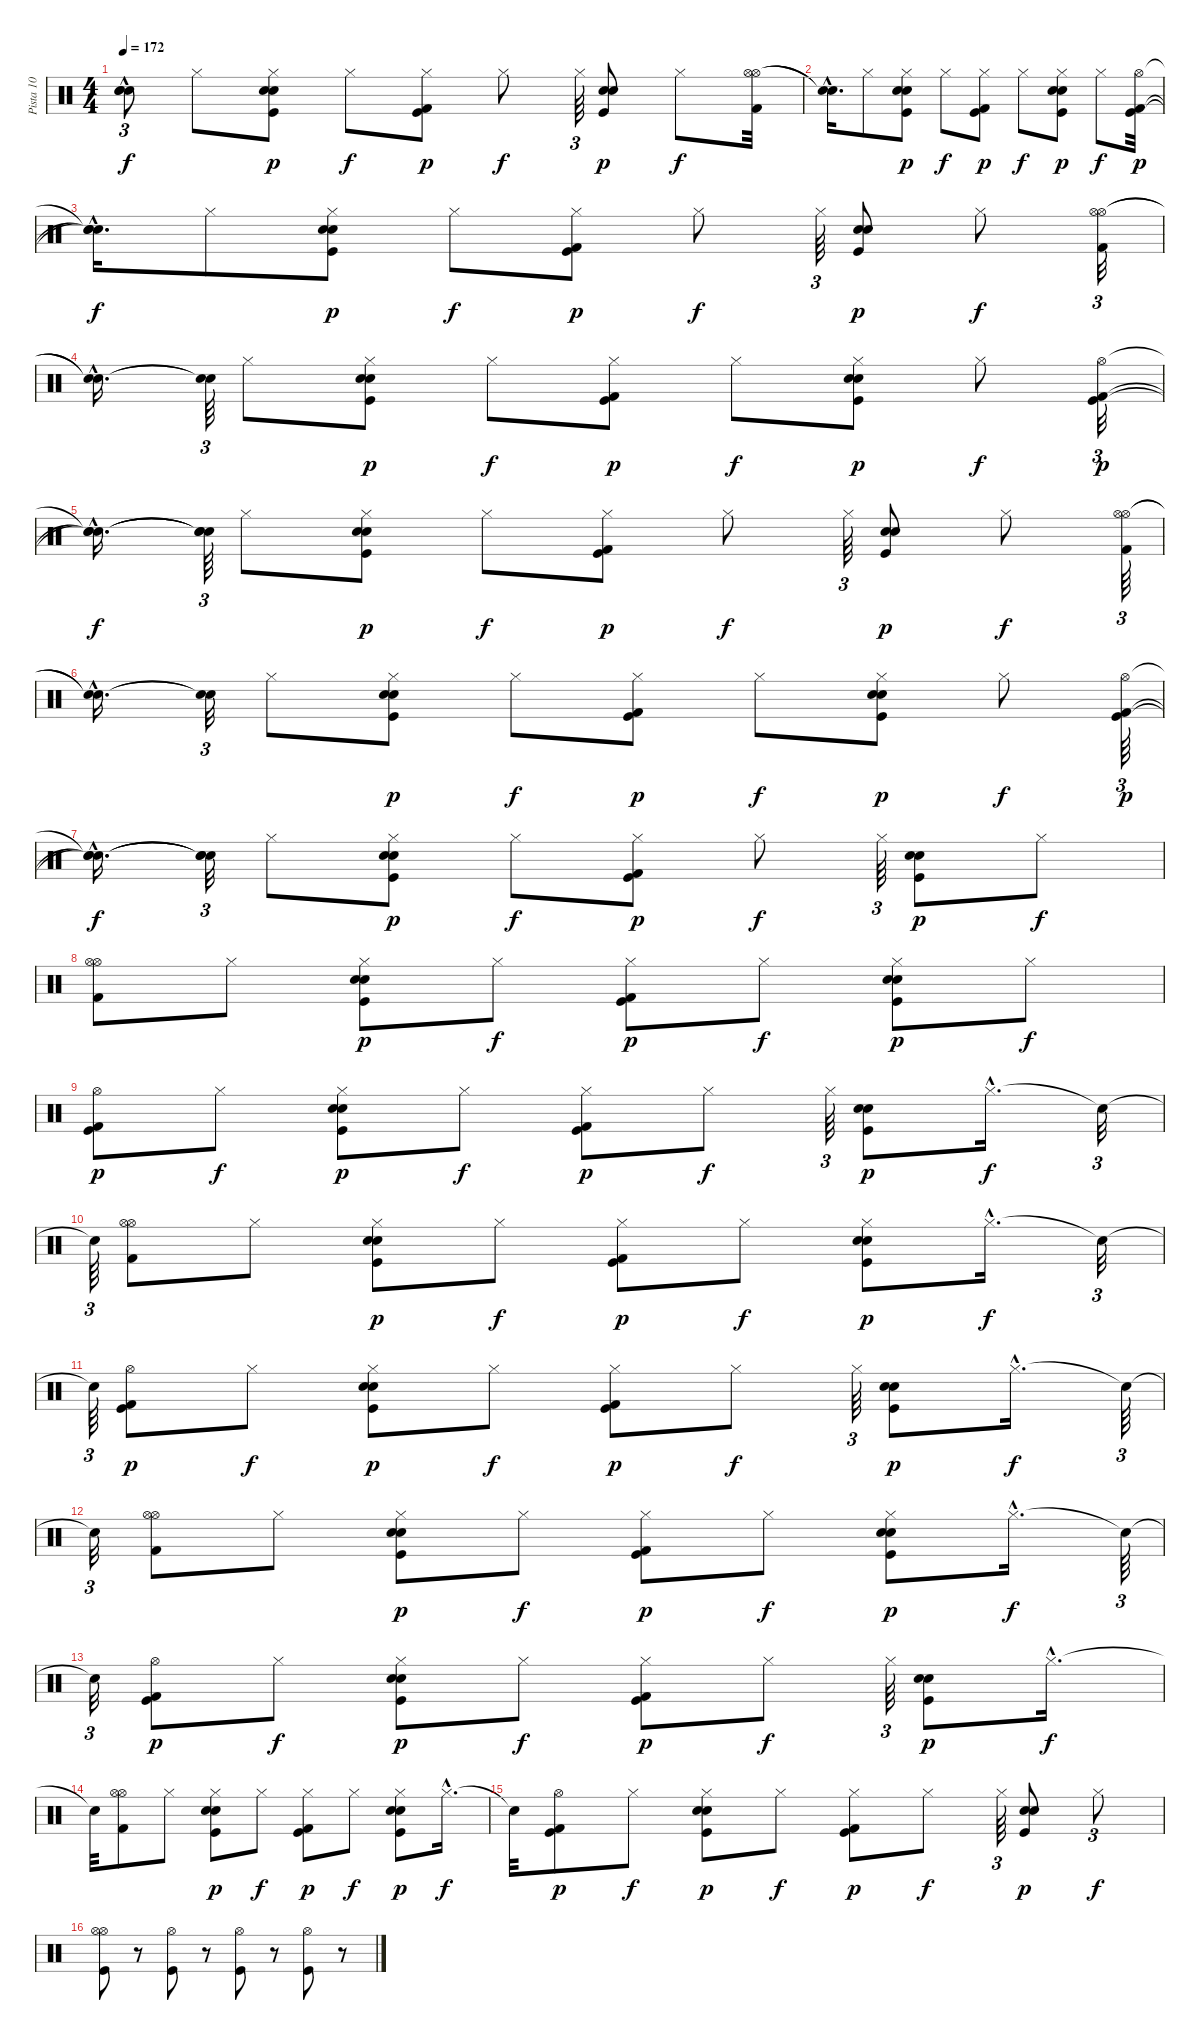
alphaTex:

\track ("Pista 10" "Pista 10") {instrument percussion}
\staff {score}
\articulation defaults
\ts (4 4)
\tempo 172
\clef neutral
\ks c
("Snare (hit)"{t} "Snare (hit)"{t} "Snare (hit)"{hac t}).8{tu (3 2) dy f} "Hi-Hat (closed)".8 ("Hi-Hat (closed)" "Snare (hit) 2" "Electric Snare (hit)" "Kick (hit)").8{dy p} "Hi-Hat (closed)".8{dy f} ("Hi-Hat (closed)" "Kick (hit) 2" "Kick (hit)").8{dy p} "Hi-Hat (closed)".8{dy f} "Hi-Hat (closed)".64{tu (3 2)} ("Snare (hit) 2" "Electric Snare (hit)" "Kick (hit)").8{dy p} "Hi-Hat (closed)".8{dy f} ("Hi-Hat (open)" "Hi-Hat (open)" "Kick (hit) 2").32 |
("Snare (hit)"{hac t} "Snare (hit)"{hac t}).16{d} "Hi-Hat (closed)".8 ("Hi-Hat (closed)" "Electric Snare (hit)" "Snare (hit) 2" "Kick (hit)").8{dy p} "Hi-Hat (closed)".8{dy f} ("Kick (hit) 2" "Kick (hit)" "Hi-Hat (closed)").8{dy p} "Hi-Hat (closed)".8{dy f} ("Snare (hit) 2" "Electric Snare (hit)" "Kick (hit)" "Hi-Hat (closed)").8{dy p} "Hi-Hat (closed)".8{dy f} ("Hi-Hat (open)" "Kick (hit) 2" "Kick (hit)").32{dy p} |
("Snare (hit)"{hac t} "Snare (hit)"{hac t} "Snare (hit)"{hac t}).16{d dy f} "Hi-Hat (closed)".8 ("Hi-Hat (closed)" "Snare (hit) 2" "Electric Snare (hit)" "Kick (hit)").8{dy p} "Hi-Hat (closed)".8{dy f} ("Hi-Hat (closed)" "Kick (hit) 2" "Kick (hit)").8{dy p} "Hi-Hat (closed)".8{dy f} "Hi-Hat (closed)".64{tu (3 2)} ("Snare (hit) 2" "Electric Snare (hit)" "Kick (hit)").8{dy p} "Hi-Hat (closed)".8{dy f} ("Hi-Hat (open)" "Hi-Hat (open)" "Kick (hit) 2").32{tu (3 2)} |
("Snare (hit)"{hac t} "Snare (hit)"{hac t}).16{d} ("Snare (hit)"{t} "Snare (hit)"{t}).64{tu (3 2)} "Hi-Hat (closed)".8 ("Hi-Hat (closed)" "Electric Snare (hit)" "Snare (hit) 2" "Kick (hit)").8{dy p} "Hi-Hat (closed)".8{dy f} ("Kick (hit) 2" "Kick (hit)" "Hi-Hat (closed)").8{dy p} "Hi-Hat (closed)".8{dy f} ("Snare (hit) 2" "Electric Snare (hit)" "Kick (hit)" "Hi-Hat (closed)").8{dy p} "Hi-Hat (closed)".8{dy f} ("Hi-Hat (open)" "Kick (hit) 2" "Kick (hit)").32{tu (3 2) dy p} |
("Snare (hit)"{hac t} "Snare (hit)"{hac t} "Snare (hit)"{hac t}).16{d dy f} ("Snare (hit)"{t} "Snare (hit)"{t} "Snare (hit)"{t}).64{tu (3 2)} "Hi-Hat (closed)".8 ("Hi-Hat (closed)" "Snare (hit) 2" "Electric Snare (hit)" "Kick (hit)").8{dy p} "Hi-Hat (closed)".8{dy f} ("Hi-Hat (closed)" "Kick (hit) 2" "Kick (hit)").8{dy p} "Hi-Hat (closed)".8{dy f} "Hi-Hat (closed)".64{tu (3 2)} ("Snare (hit) 2" "Electric Snare (hit)" "Kick (hit)").8{dy p} "Hi-Hat (closed)".8{dy f} ("Hi-Hat (open)" "Hi-Hat (open)" "Kick (hit) 2").64{tu (3 2)} |
("Snare (hit)"{hac t} "Snare (hit)"{hac t}).16{d} ("Snare (hit)"{t} "Snare (hit)"{t}).32{tu (3 2)} "Hi-Hat (closed)".8 ("Hi-Hat (closed)" "Electric Snare (hit)" "Snare (hit) 2" "Kick (hit)").8{dy p} "Hi-Hat (closed)".8{dy f} ("Kick (hit) 2" "Kick (hit)" "Hi-Hat (closed)").8{dy p} "Hi-Hat (closed)".8{dy f} ("Snare (hit) 2" "Electric Snare (hit)" "Kick (hit)" "Hi-Hat (closed)").8{dy p} "Hi-Hat (closed)".8{dy f} ("Hi-Hat (open)" "Kick (hit) 2" "Kick (hit)").64{tu (3 2) dy p} |
("Snare (hit)"{hac t} "Snare (hit)"{hac t} "Snare (hit)"{hac t}).16{d dy f} ("Snare (hit)"{t} "Snare (hit)"{t} "Snare (hit)"{t}).32{tu (3 2)} "Hi-Hat (closed)".8 ("Hi-Hat (closed)" "Snare (hit) 2" "Electric Snare (hit)" "Kick (hit)").8{dy p} "Hi-Hat (closed)".8{dy f} ("Hi-Hat (closed)" "Kick (hit) 2" "Kick (hit)").8{dy p} "Hi-Hat (closed)".8{dy f} "Hi-Hat (closed)".64{tu (3 2)} ("Snare (hit) 2" "Electric Snare (hit)" "Kick (hit)").8{dy p} "Hi-Hat (closed)".8{dy f} |
("Hi-Hat (open)" "Hi-Hat (open)" "Kick (hit) 2").8 "Hi-Hat (closed)".8 ("Hi-Hat (closed)" "Electric Snare (hit)" "Snare (hit) 2" "Kick (hit)").8{dy p} "Hi-Hat (closed)".8{dy f} ("Kick (hit) 2" "Kick (hit)" "Hi-Hat (closed)").8{dy p} "Hi-Hat (closed)".8{dy f} ("Snare (hit) 2" "Electric Snare (hit)" "Kick (hit)" "Hi-Hat (closed)").8{dy p} "Hi-Hat (closed)".8{dy f} |
("Hi-Hat (open)" "Kick (hit) 2" "Kick (hit)").8{dy p} "Hi-Hat (closed)".8{dy f} ("Hi-Hat (closed)" "Snare (hit) 2" "Electric Snare (hit)" "Kick (hit)").8{dy p} "Hi-Hat (closed)".8{dy f} ("Hi-Hat (closed)" "Kick (hit) 2" "Kick (hit)").8{dy p} "Hi-Hat (closed)".8{dy f} "Hi-Hat (closed)".64{tu (3 2)} ("Snare (hit) 2" "Electric Snare (hit)" "Kick (hit)").8{dy p} "Hi-Hat (closed)"{hac}.16{d dy f} "Snare (hit)"{t}.32{tu (3 2)} |
"Snare (hit)"{t}.64{tu (3 2)} ("Hi-Hat (open)" "Hi-Hat (open)" "Kick (hit) 2").8 "Hi-Hat (closed)".8 ("Hi-Hat (closed)" "Electric Snare (hit)" "Snare (hit) 2" "Kick (hit)").8{dy p} "Hi-Hat (closed)".8{dy f} ("Kick (hit) 2" "Kick (hit)" "Hi-Hat (closed)").8{dy p} "Hi-Hat (closed)".8{dy f} ("Snare (hit) 2" "Electric Snare (hit)" "Kick (hit)" "Hi-Hat (closed)").8{dy p} "Hi-Hat (closed)"{hac}.16{d dy f} "Snare (hit)"{t}.32{tu (3 2)} |
"Snare (hit)"{t}.64{tu (3 2)} ("Hi-Hat (open)" "Kick (hit) 2" "Kick (hit)").8{dy p} "Hi-Hat (closed)".8{dy f} ("Hi-Hat (closed)" "Snare (hit) 2" "Electric Snare (hit)" "Kick (hit)").8{dy p} "Hi-Hat (closed)".8{dy f} ("Hi-Hat (closed)" "Kick (hit) 2" "Kick (hit)").8{dy p} "Hi-Hat (closed)".8{dy f} "Hi-Hat (closed)".64{tu (3 2)} ("Snare (hit) 2" "Electric Snare (hit)" "Kick (hit)").8{dy p} "Hi-Hat (closed)"{hac}.16{d dy f} "Snare (hit)"{t}.64{tu (3 2)} |
"Snare (hit)"{t}.32{tu (3 2)} ("Hi-Hat (open)" "Hi-Hat (open)" "Kick (hit) 2").8 "Hi-Hat (closed)".8 ("Hi-Hat (closed)" "Electric Snare (hit)" "Snare (hit) 2" "Kick (hit)").8{dy p} "Hi-Hat (closed)".8{dy f} ("Kick (hit) 2" "Kick (hit)" "Hi-Hat (closed)").8{dy p} "Hi-Hat (closed)".8{dy f} ("Snare (hit) 2" "Electric Snare (hit)" "Kick (hit)" "Hi-Hat (closed)").8{dy p} "Hi-Hat (closed)"{hac}.16{d dy f} "Snare (hit)"{t}.64{tu (3 2)} |
"Snare (hit)"{t}.32{tu (3 2)} ("Hi-Hat (open)" "Kick (hit) 2" "Kick (hit)").8{dy p} "Hi-Hat (closed)".8{dy f} ("Hi-Hat (closed)" "Snare (hit) 2" "Electric Snare (hit)" "Kick (hit)").8{dy p} "Hi-Hat (closed)".8{dy f} ("Hi-Hat (closed)" "Kick (hit) 2" "Kick (hit)").8{dy p} "Hi-Hat (closed)".8{dy f} "Hi-Hat (closed)".64{tu (3 2)} ("Snare (hit) 2" "Electric Snare (hit)" "Kick (hit)").8{dy p} "Hi-Hat (closed)"{hac}.16{d dy f} |
"Snare (hit)"{t}.32 ("Hi-Hat (open)" "Hi-Hat (open)" "Kick (hit) 2").8 "Hi-Hat (closed)".8 ("Hi-Hat (closed)" "Electric Snare (hit)" "Snare (hit) 2" "Kick (hit)").8{dy p} "Hi-Hat (closed)".8{dy f} ("Kick (hit) 2" "Kick (hit)" "Hi-Hat (closed)").8{dy p} "Hi-Hat (closed)".8{dy f} ("Snare (hit) 2" "Electric Snare (hit)" "Kick (hit)" "Hi-Hat (closed)").8{dy p} "Hi-Hat (closed)"{hac}.16{d dy f} |
"Snare (hit)"{t}.32 ("Hi-Hat (open)" "Kick (hit) 2" "Kick (hit)").8{dy p} "Hi-Hat (closed)".8{dy f} ("Hi-Hat (closed)" "Snare (hit) 2" "Electric Snare (hit)" "Kick (hit)").8{dy p} "Hi-Hat (closed)".8{dy f} ("Hi-Hat (closed)" "Kick (hit) 2" "Kick (hit)").8{dy p} "Hi-Hat (closed)".8{dy f} "Hi-Hat (closed)".64{tu (3 2)} ("Snare (hit) 2" "Electric Snare (hit)" "Kick (hit)").8{dy p} "Hi-Hat (closed)".8{tu (3 2) dy f} |
("Hi-Hat (open)" "Kick (hit)" "Hi-Hat (open)").8 r.8 ("Hi-Hat (open)" "Kick (hit)").8 r.8 ("Hi-Hat (open)" "Kick (hit)").8 r.8 ("Hi-Hat (open)" "Kick (hit)").8 r.8
